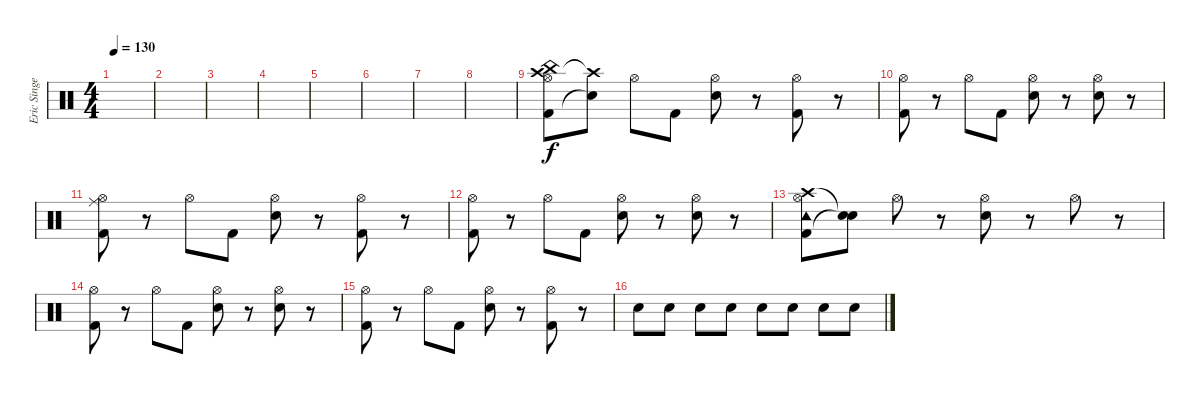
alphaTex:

\track ("Eric Singer" "Eric Singe") {instrument percussion}
\staff {score}
\articulation defaults
\ts (4 4)
\tempo 130
\clef neutral
\ks c
|
|
|
|
|
|
|
|
("Crash high (hit)" "Kick (hit) 2" "Hi-Hat (open)" "China (hit)").8 ("Crash high (hit)"{t} "Snare (hit)"{t}).8 "Hi-Hat (open)".8 "Kick (hit) 2".8 ("Hi-Hat (open)" "Electric Snare (hit)").8 r.8 ("Hi-Hat (open)" "Kick (hit) 2").8 r.8 |
("Hi-Hat (open)" "Kick (hit) 2").8 r.8 "Hi-Hat (open)".8 "Kick (hit) 2".8 ("Hi-Hat (open)" "Electric Snare (hit)").8 r.8 ("Hi-Hat (open)" "Electric Snare (hit)").8 r.8 |
("Hi-Hat (open)" "Kick (hit) 2" "Ride (middle)").8 r.8 "Hi-Hat (open)".8 "Kick (hit) 2".8 ("Hi-Hat (open)" "Electric Snare (hit)").8 r.8 ("Hi-Hat (open)" "Kick (hit) 2").8 r.8 |
("Hi-Hat (open)" "Kick (hit) 2").8 r.8 "Hi-Hat (open)".8 "Kick (hit) 2".8 ("Hi-Hat (open)" "Electric Snare (hit)").8 r.8 ("Hi-Hat (open)" "Electric Snare (hit)").8 r.8 |
("Crash high (hit)" "Kick (hit) 2" "Hi-Hat (open)" "Tambourine (hit)").8 ("Snare (hit)"{t} "Snare (hit)"{t}).8 "Hi-Hat (open)".8 r.8 ("Hi-Hat (open)" "Electric Snare (hit)").8 r.8 "Hi-Hat (open)".8 r.8 |
("Hi-Hat (open)" "Kick (hit) 2").8 r.8 "Hi-Hat (open)".8 "Kick (hit) 2".8 ("Hi-Hat (open)" "Electric Snare (hit)").8 r.8 ("Hi-Hat (open)" "Electric Snare (hit)").8 r.8 |
("Hi-Hat (open)" "Kick (hit) 2").8 r.8 "Hi-Hat (open)".8 "Kick (hit) 2".8 ("Hi-Hat (open)" "Electric Snare (hit)").8 r.8 ("Hi-Hat (open)" "Kick (hit) 2").8 r.8 |
"Electric Snare (hit)".8 "Electric Snare (hit)".8 "Electric Snare (hit)".8 "Electric Snare (hit)".8 "Electric Snare (hit)".8 "Electric Snare (hit)".8 "Electric Snare (hit)".8 "Electric Snare (hit)".8
